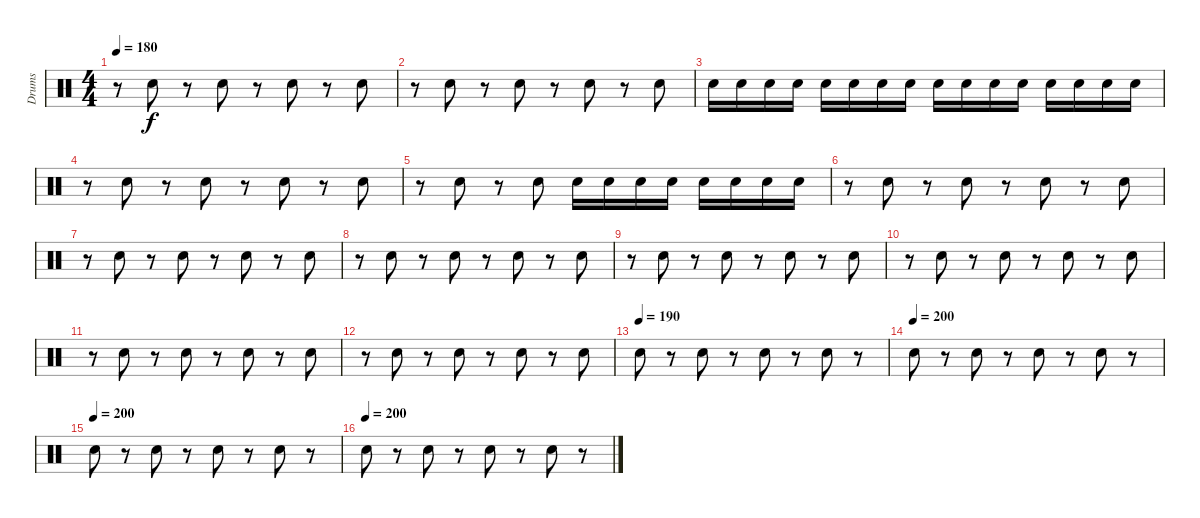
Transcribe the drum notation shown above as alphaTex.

\track ("Drums" "Drums") {instrument percussion}
\staff {score}
\articulation defaults
\ts (4 4)
\tempo 180
\clef neutral
\ks c
r.8{dy f} "Electric Snare (hit)".8 r.8 "Electric Snare (hit)".8 r.8 "Electric Snare (hit)".8 r.8 "Electric Snare (hit)".8 |
r.8 "Electric Snare (hit)".8 r.8 "Electric Snare (hit)".8 r.8 "Electric Snare (hit)".8 r.8 "Electric Snare (hit)".8 |
"Snare (hit) 2".16 "Snare (hit) 2".16 "Snare (hit) 2".16 "Snare (hit) 2".16 "Electric Snare (hit)".16 "Electric Snare (hit)".16 "Electric Snare (hit)".16 "Electric Snare (hit)".16 "Snare (hit) 2".16 "Snare (hit) 2".16 "Snare (hit) 2".16 "Snare (hit) 2".16 "Electric Snare (hit)".16 "Electric Snare (hit)".16 "Electric Snare (hit)".16 "Electric Snare (hit)".16 |
r.8 "Electric Snare (hit)".8 r.8 "Electric Snare (hit)".8 r.8 "Electric Snare (hit)".8 r.8 "Electric Snare (hit)".8 |
r.8 "Electric Snare (hit)".8 r.8 "Electric Snare (hit)".8 "Electric Snare (hit)".16 "Snare (hit) 2".16 "Snare (hit) 2".16 "Snare (hit) 2".16 "Snare (hit) 2".16 "Snare (hit) 2".16 "Snare (hit) 2".16 "Snare (hit) 2".16 |
r.8 "Electric Snare (hit)".8 r.8 "Electric Snare (hit)".8 r.8 "Electric Snare (hit)".8 r.8 "Electric Snare (hit)".8 |
r.8 "Electric Snare (hit)".8 r.8 "Electric Snare (hit)".8 r.8 "Electric Snare (hit)".8 r.8 "Electric Snare (hit)".8 |
r.8 "Electric Snare (hit)".8 r.8 "Electric Snare (hit)".8 r.8 "Electric Snare (hit)".8 r.8 "Electric Snare (hit)".8 |
r.8 "Electric Snare (hit)".8 r.8 "Electric Snare (hit)".8 r.8 "Electric Snare (hit)".8 r.8 "Electric Snare (hit)".8 |
r.8 "Electric Snare (hit)".8 r.8 "Electric Snare (hit)".8 r.8 "Electric Snare (hit)".8 r.8 "Electric Snare (hit)".8 |
r.8 "Electric Snare (hit)".8 r.8 "Electric Snare (hit)".8 r.8 "Electric Snare (hit)".8 r.8 "Electric Snare (hit)".8 |
r.8 "Electric Snare (hit)".8 r.8 "Electric Snare (hit)".8 r.8 "Electric Snare (hit)".8 r.8 "Electric Snare (hit)".8 |
\tempo 200
\tempo (190)
"Electric Snare (hit)".8 r.8 "Electric Snare (hit)".8 r.8 "Electric Snare (hit)".8 r.8 "Electric Snare (hit)".8 r.8 |
\tempo (200)
"Electric Snare (hit)".8 r.8 "Electric Snare (hit)".8 r.8 "Electric Snare (hit)".8 r.8 "Electric Snare (hit)".8 r.8 |
\tempo (200)
"Electric Snare (hit)".8 r.8 "Electric Snare (hit)".8 r.8 "Electric Snare (hit)".8 r.8 "Electric Snare (hit)".8 r.8 |
\tempo (200)
"Electric Snare (hit)".8 r.8 "Electric Snare (hit)".8 r.8 "Electric Snare (hit)".8 r.8 "Electric Snare (hit)".8 r.8
